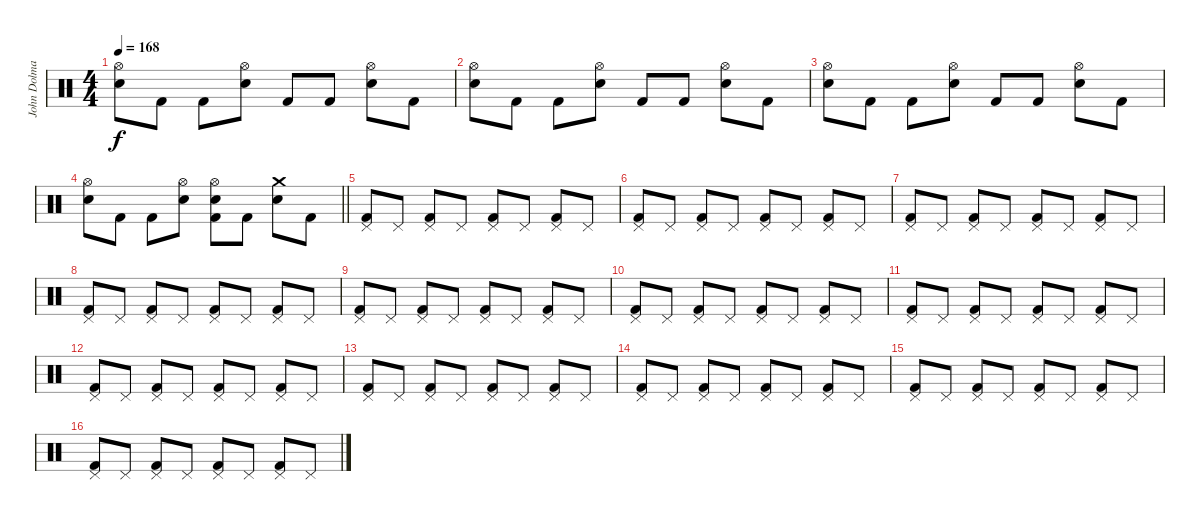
\track ("John Dolmayan" "John Dolma") {instrument percussion}
\staff {score}
\articulation defaults
\ts (4 4)
\tempo 168
\clef neutral
\ks c
("Hi-Hat (open)" "Electric Snare (hit)").8{dy f} "Kick (hit) 2".8 "Kick (hit) 2".8 ("Hi-Hat (open)" "Electric Snare (hit)").8 "Kick (hit) 2".8 "Kick (hit) 2".8 ("Hi-Hat (open)" "Electric Snare (hit)").8 "Kick (hit) 2".8 |
("Hi-Hat (open)" "Electric Snare (hit)").8 "Kick (hit) 2".8 "Kick (hit) 2".8 ("Hi-Hat (open)" "Electric Snare (hit)").8 "Kick (hit) 2".8 "Kick (hit) 2".8 ("Hi-Hat (open)" "Electric Snare (hit)").8 "Kick (hit) 2".8 |
("Hi-Hat (open)" "Electric Snare (hit)").8 "Kick (hit) 2".8 "Kick (hit) 2".8 ("Hi-Hat (open)" "Electric Snare (hit)").8 "Kick (hit) 2".8 "Kick (hit) 2".8 ("Hi-Hat (open)" "Electric Snare (hit)").8 "Kick (hit) 2".8 |
\barLineRight lightlight
("Hi-Hat (open)" "Electric Snare (hit)").8 "Kick (hit) 2".8 "Kick (hit) 2".8 ("Hi-Hat (open)" "Electric Snare (hit)").8 ("Hi-Hat (open)" "Electric Snare (hit)" "Kick (hit) 2").8 "Kick (hit) 2".8 ("Crash medium (hit)" "Electric Snare (hit)").8 "Kick (hit) 2".8 |
("Pedal Hi-Hat (hit)" "Kick (hit) 2").8 "Pedal Hi-Hat (hit)".8 ("Pedal Hi-Hat (hit)" "Kick (hit) 2").8 "Pedal Hi-Hat (hit)".8 ("Pedal Hi-Hat (hit)" "Kick (hit) 2").8 "Pedal Hi-Hat (hit)".8 ("Pedal Hi-Hat (hit)" "Kick (hit) 2").8 "Pedal Hi-Hat (hit)".8 |
("Pedal Hi-Hat (hit)" "Kick (hit) 2").8 "Pedal Hi-Hat (hit)".8 ("Pedal Hi-Hat (hit)" "Kick (hit) 2").8 "Pedal Hi-Hat (hit)".8 ("Pedal Hi-Hat (hit)" "Kick (hit) 2").8 "Pedal Hi-Hat (hit)".8 ("Pedal Hi-Hat (hit)" "Kick (hit) 2").8 "Pedal Hi-Hat (hit)".8 |
("Pedal Hi-Hat (hit)" "Kick (hit) 2").8 "Pedal Hi-Hat (hit)".8 ("Pedal Hi-Hat (hit)" "Kick (hit) 2").8 "Pedal Hi-Hat (hit)".8 ("Pedal Hi-Hat (hit)" "Kick (hit) 2").8 "Pedal Hi-Hat (hit)".8 ("Pedal Hi-Hat (hit)" "Kick (hit) 2").8 "Pedal Hi-Hat (hit)".8 |
("Pedal Hi-Hat (hit)" "Kick (hit) 2").8 "Pedal Hi-Hat (hit)".8 ("Pedal Hi-Hat (hit)" "Kick (hit) 2").8 "Pedal Hi-Hat (hit)".8 ("Pedal Hi-Hat (hit)" "Kick (hit) 2").8 "Pedal Hi-Hat (hit)".8 ("Pedal Hi-Hat (hit)" "Kick (hit) 2").8 "Pedal Hi-Hat (hit)".8 |
("Pedal Hi-Hat (hit)" "Kick (hit) 2").8 "Pedal Hi-Hat (hit)".8 ("Pedal Hi-Hat (hit)" "Kick (hit) 2").8 "Pedal Hi-Hat (hit)".8 ("Pedal Hi-Hat (hit)" "Kick (hit) 2").8 "Pedal Hi-Hat (hit)".8 ("Pedal Hi-Hat (hit)" "Kick (hit) 2").8 "Pedal Hi-Hat (hit)".8 |
("Pedal Hi-Hat (hit)" "Kick (hit) 2").8 "Pedal Hi-Hat (hit)".8 ("Pedal Hi-Hat (hit)" "Kick (hit) 2").8 "Pedal Hi-Hat (hit)".8 ("Pedal Hi-Hat (hit)" "Kick (hit) 2").8 "Pedal Hi-Hat (hit)".8 ("Pedal Hi-Hat (hit)" "Kick (hit) 2").8 "Pedal Hi-Hat (hit)".8 |
("Pedal Hi-Hat (hit)" "Kick (hit) 2").8 "Pedal Hi-Hat (hit)".8 ("Pedal Hi-Hat (hit)" "Kick (hit) 2").8 "Pedal Hi-Hat (hit)".8 ("Pedal Hi-Hat (hit)" "Kick (hit) 2").8 "Pedal Hi-Hat (hit)".8 ("Pedal Hi-Hat (hit)" "Kick (hit) 2").8 "Pedal Hi-Hat (hit)".8 |
("Pedal Hi-Hat (hit)" "Kick (hit) 2").8 "Pedal Hi-Hat (hit)".8 ("Pedal Hi-Hat (hit)" "Kick (hit) 2").8 "Pedal Hi-Hat (hit)".8 ("Pedal Hi-Hat (hit)" "Kick (hit) 2").8 "Pedal Hi-Hat (hit)".8 ("Pedal Hi-Hat (hit)" "Kick (hit) 2").8 "Pedal Hi-Hat (hit)".8 |
("Pedal Hi-Hat (hit)" "Kick (hit) 2").8 "Pedal Hi-Hat (hit)".8 ("Pedal Hi-Hat (hit)" "Kick (hit) 2").8 "Pedal Hi-Hat (hit)".8 ("Pedal Hi-Hat (hit)" "Kick (hit) 2").8 "Pedal Hi-Hat (hit)".8 ("Pedal Hi-Hat (hit)" "Kick (hit) 2").8 "Pedal Hi-Hat (hit)".8 |
("Pedal Hi-Hat (hit)" "Kick (hit) 2").8 "Pedal Hi-Hat (hit)".8 ("Pedal Hi-Hat (hit)" "Kick (hit) 2").8 "Pedal Hi-Hat (hit)".8 ("Pedal Hi-Hat (hit)" "Kick (hit) 2").8 "Pedal Hi-Hat (hit)".8 ("Pedal Hi-Hat (hit)" "Kick (hit) 2").8 "Pedal Hi-Hat (hit)".8 |
("Pedal Hi-Hat (hit)" "Kick (hit) 2").8 "Pedal Hi-Hat (hit)".8 ("Pedal Hi-Hat (hit)" "Kick (hit) 2").8 "Pedal Hi-Hat (hit)".8 ("Pedal Hi-Hat (hit)" "Kick (hit) 2").8 "Pedal Hi-Hat (hit)".8 ("Pedal Hi-Hat (hit)" "Kick (hit) 2").8 "Pedal Hi-Hat (hit)".8 |
("Pedal Hi-Hat (hit)" "Kick (hit) 2").8 "Pedal Hi-Hat (hit)".8 ("Pedal Hi-Hat (hit)" "Kick (hit) 2").8 "Pedal Hi-Hat (hit)".8 ("Pedal Hi-Hat (hit)" "Kick (hit) 2").8 "Pedal Hi-Hat (hit)".8 ("Pedal Hi-Hat (hit)" "Kick (hit) 2").8 "Pedal Hi-Hat (hit)".8
